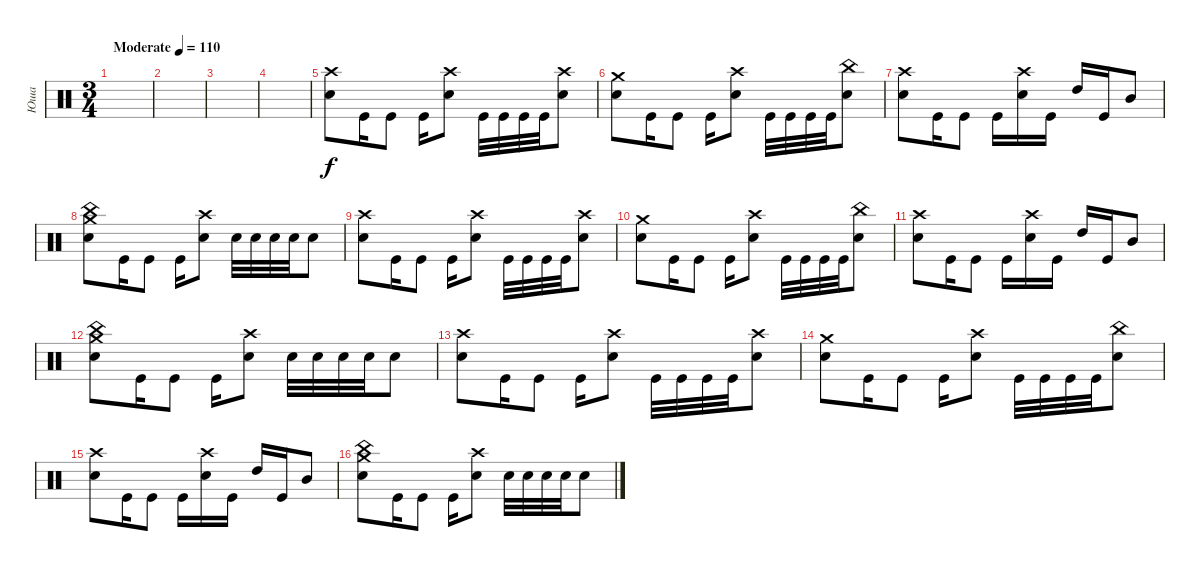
\track ("Юша" "Юша") {instrument percussion}
\staff {score}
\articulation defaults
\ts (3 4)
\tempo (110 "Moderate")
\clef neutral
\ks c
|
|
|
|
("Crash high (hit)" "Snare (hit) 2").8 "Kick (hit)".16 "Kick (hit)".8 "Kick (hit)".16 ("Snare (hit) 2" "Crash high (hit)").8 "Kick (hit)".32 "Kick (hit)".32 "Kick (hit)".32 "Kick (hit)".32 ("Snare (hit) 2" "Crash high (hit)").8 |
("Crash medium (hit)" "Snare (hit) 2").8 "Kick (hit)".16 "Kick (hit)".8 "Kick (hit)".16 ("Snare (hit) 2" "Crash high (hit)").8 "Kick (hit)".32 "Kick (hit)".32 "Kick (hit)".32 "Kick (hit)".32 ("Snare (hit) 2" "China (hit)").8 |
("Crash high (hit)" "Snare (hit) 2").8 "Kick (hit)".16 "Kick (hit)".8 "Kick (hit)".16 ("Snare (hit) 2" "Crash high (hit)").16 "Kick (hit)".16 "High Tom (hit)".16 "Kick (hit)".16 "Mid Tom (hit)".8 |
("Crash medium (hit)" "Snare (hit) 2" "China (hit)").8 "Kick (hit)".16 "Kick (hit)".8 "Kick (hit)".16 ("Snare (hit) 2" "Crash high (hit)").8 "Snare (hit) 2".32 "Snare (hit) 2".32 "Snare (hit) 2".32 "Snare (hit) 2".32 "Snare (hit) 2".8 |
("Crash high (hit)" "Snare (hit) 2").8 "Kick (hit)".16 "Kick (hit)".8 "Kick (hit)".16 ("Snare (hit) 2" "Crash high (hit)").8 "Kick (hit)".32 "Kick (hit)".32 "Kick (hit)".32 "Kick (hit)".32 ("Snare (hit) 2" "Crash high (hit)").8 |
("Crash medium (hit)" "Snare (hit) 2").8 "Kick (hit)".16 "Kick (hit)".8 "Kick (hit)".16 ("Snare (hit) 2" "Crash high (hit)").8 "Kick (hit)".32 "Kick (hit)".32 "Kick (hit)".32 "Kick (hit)".32 ("Snare (hit) 2" "China (hit)").8 |
("Crash high (hit)" "Snare (hit) 2").8 "Kick (hit)".16 "Kick (hit)".8 "Kick (hit)".16 ("Snare (hit) 2" "Crash high (hit)").16 "Kick (hit)".16 "High Tom (hit)".16 "Kick (hit)".16 "Mid Tom (hit)".8 |
("Crash medium (hit)" "Snare (hit) 2" "China (hit)").8 "Kick (hit)".16 "Kick (hit)".8 "Kick (hit)".16 ("Snare (hit) 2" "Crash high (hit)").8 "Snare (hit) 2".32 "Snare (hit) 2".32 "Snare (hit) 2".32 "Snare (hit) 2".32 "Snare (hit) 2".8 |
("Crash high (hit)" "Snare (hit) 2").8 "Kick (hit)".16 "Kick (hit)".8 "Kick (hit)".16 ("Snare (hit) 2" "Crash high (hit)").8 "Kick (hit)".32 "Kick (hit)".32 "Kick (hit)".32 "Kick (hit)".32 ("Snare (hit) 2" "Crash high (hit)").8 |
("Crash medium (hit)" "Snare (hit) 2").8 "Kick (hit)".16 "Kick (hit)".8 "Kick (hit)".16 ("Snare (hit) 2" "Crash high (hit)").8 "Kick (hit)".32 "Kick (hit)".32 "Kick (hit)".32 "Kick (hit)".32 ("Snare (hit) 2" "China (hit)").8 |
("Crash high (hit)" "Snare (hit) 2").8 "Kick (hit)".16 "Kick (hit)".8 "Kick (hit)".16 ("Snare (hit) 2" "Crash high (hit)").16 "Kick (hit)".16 "High Tom (hit)".16 "Kick (hit)".16 "Mid Tom (hit)".8 |
("Crash medium (hit)" "Snare (hit) 2" "China (hit)").8 "Kick (hit)".16 "Kick (hit)".8 "Kick (hit)".16 ("Snare (hit) 2" "Crash high (hit)").8 "Snare (hit) 2".32 "Snare (hit) 2".32 "Snare (hit) 2".32 "Snare (hit) 2".32 "Snare (hit) 2".8
